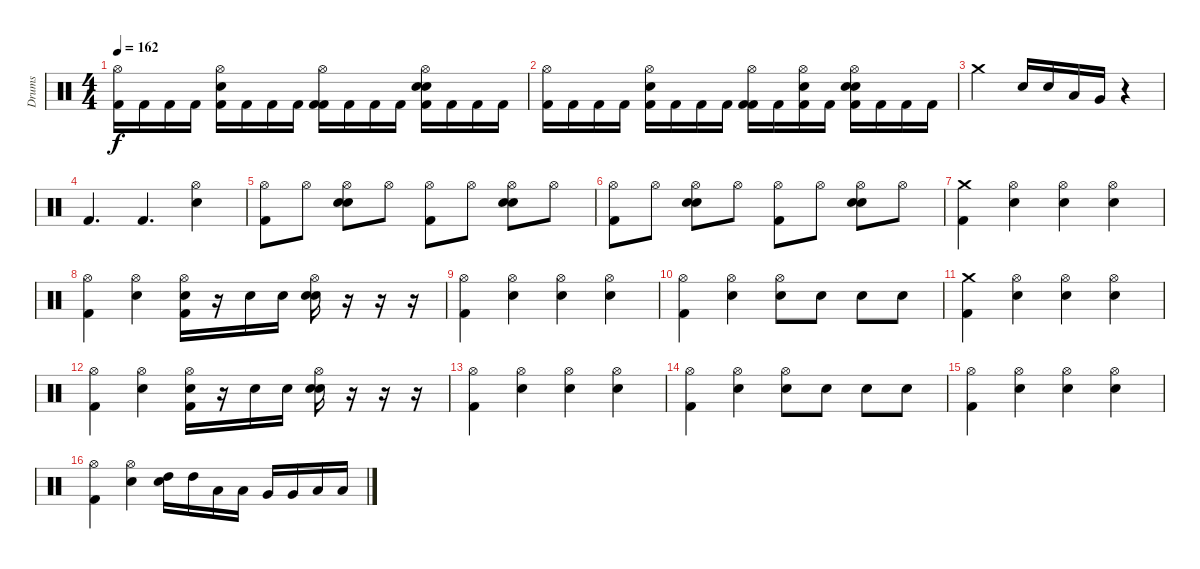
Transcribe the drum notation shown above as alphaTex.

\track ("Drums" "Drums") {instrument percussion}
\staff {score}
\articulation defaults
\ts (4 4)
\tempo 162
\clef neutral
\ks c
("Hi-Hat (open)" "Kick (hit) 2").16{dy f} "Kick (hit) 2".16 "Kick (hit) 2".16 "Kick (hit) 2".16 ("Kick (hit) 2" "Electric Snare (hit)" "Hi-Hat (open)").16 "Kick (hit) 2".16 "Kick (hit) 2".16 "Kick (hit) 2".16 ("Kick (hit) 2" "Hi-Hat (open)" "Kick (hit) 2").16 "Kick (hit) 2".16 "Kick (hit) 2".16 "Kick (hit) 2".16 ("Kick (hit) 2" "Electric Snare (hit)" "Hi-Hat (open)" "Snare (hit) 2").16 "Kick (hit) 2".16 "Kick (hit) 2".16 "Kick (hit) 2".16 |
("Hi-Hat (open)" "Kick (hit) 2").16 "Kick (hit) 2".16 "Kick (hit) 2".16 "Kick (hit) 2".16 ("Kick (hit) 2" "Electric Snare (hit)" "Hi-Hat (open)").16 "Kick (hit) 2".16 "Kick (hit) 2".16 "Kick (hit) 2".16 ("Kick (hit) 2" "Hi-Hat (open)" "Kick (hit) 2").16 "Kick (hit) 2".16 ("Kick (hit) 2" "Electric Snare (hit)" "Hi-Hat (open)").16 "Kick (hit) 2".16 ("Kick (hit) 2" "Electric Snare (hit)" "Hi-Hat (open)" "Snare (hit) 2").16 "Kick (hit) 2".16 "Kick (hit) 2".16 "Kick (hit) 2".16 |
"Crash medium (hit)".2 "Electric Snare (hit)".16 "Electric Snare (hit)".16 "Low Tom (hit)".16 "Very Low Tom (hit)".16 r.4 |
"Kick (hit) 2".4{d} "Kick (hit) 2".4{d} ("Hi-Hat (open)" "Electric Snare (hit)").4 |
("Hi-Hat (open)" "Kick (hit) 2").8 "Hi-Hat (open)".8 ("Electric Snare (hit)" "Hi-Hat (open)" "Snare (hit) 2").8 "Hi-Hat (open)".8 ("Hi-Hat (open)" "Kick (hit) 2").8 "Hi-Hat (open)".8 ("Electric Snare (hit)" "Hi-Hat (open)" "Snare (hit) 2").8 "Hi-Hat (open)".8 |
("Hi-Hat (open)" "Kick (hit) 2").8 "Hi-Hat (open)".8 ("Electric Snare (hit)" "Hi-Hat (open)" "Snare (hit) 2").8 "Hi-Hat (open)".8 ("Hi-Hat (open)" "Kick (hit) 2").8 "Hi-Hat (open)".8 ("Electric Snare (hit)" "Hi-Hat (open)" "Snare (hit) 2").8 "Hi-Hat (open)".8 |
("Crash medium (hit)" "Kick (hit) 2").4 ("Electric Snare (hit)" "Hi-Hat (open)").4 ("Hi-Hat (open)" "Snare (hit) 2").4 ("Electric Snare (hit)" "Hi-Hat (open)").4 |
("Hi-Hat (open)" "Kick (hit) 2").4 ("Hi-Hat (open)" "Electric Snare (hit)").4 ("Electric Snare (hit)" "Hi-Hat (open)" "Kick (hit) 2").16 r.16 "Snare (hit) 2".16 "Snare (hit) 2".16 ("Electric Snare (hit)" "Hi-Hat (open)" "Snare (hit) 2").16 r.16 r.16 r.16 |
("Hi-Hat (open)" "Kick (hit) 2").4 ("Electric Snare (hit)" "Hi-Hat (open)").4 ("Hi-Hat (open)" "Snare (hit) 2").4 ("Electric Snare (hit)" "Hi-Hat (open)").4 |
("Hi-Hat (open)" "Kick (hit) 2").4 ("Hi-Hat (open)" "Electric Snare (hit)").4 ("Hi-Hat (open)" "Snare (hit) 2").8 "Electric Snare (hit)".8 "Electric Snare (hit)".8 "Electric Snare (hit)".8 |
("Crash medium (hit)" "Kick (hit) 2").4 ("Electric Snare (hit)" "Hi-Hat (open)").4 ("Hi-Hat (open)" "Snare (hit) 2").4 ("Electric Snare (hit)" "Hi-Hat (open)").4 |
("Hi-Hat (open)" "Kick (hit) 2").4 ("Hi-Hat (open)" "Electric Snare (hit)").4 ("Electric Snare (hit)" "Hi-Hat (open)" "Kick (hit) 2").16 r.16 "Snare (hit) 2".16 "Snare (hit) 2".16 ("Electric Snare (hit)" "Hi-Hat (open)" "Snare (hit) 2").16 r.16 r.16 r.16 |
("Hi-Hat (open)" "Kick (hit) 2").4 ("Electric Snare (hit)" "Hi-Hat (open)").4 ("Hi-Hat (open)" "Snare (hit) 2").4 ("Electric Snare (hit)" "Hi-Hat (open)").4 |
("Hi-Hat (open)" "Kick (hit) 2").4 ("Hi-Hat (open)" "Electric Snare (hit)").4 ("Hi-Hat (open)" "Snare (hit) 2").8 "Electric Snare (hit)".8 "Electric Snare (hit)".8 "Electric Snare (hit)".8 |
("Hi-Hat (open)" "Kick (hit) 2").4 ("Electric Snare (hit)" "Hi-Hat (open)").4 ("Hi-Hat (open)" "Snare (hit) 2").4 ("Electric Snare (hit)" "Hi-Hat (open)").4 |
("Hi-Hat (open)" "Kick (hit) 2").4 ("Electric Snare (hit)" "Hi-Hat (open)").4 ("High Tom (hit)" "Snare (hit) 2").16 "High Tom (hit)".16 "Low Tom (hit)".16 "Low Tom (hit)".16 "Very Low Tom (hit)".16 "Very Low Tom (hit)".16 "Low Floor Tom (hit)".16 "Low Floor Tom (hit)".16
